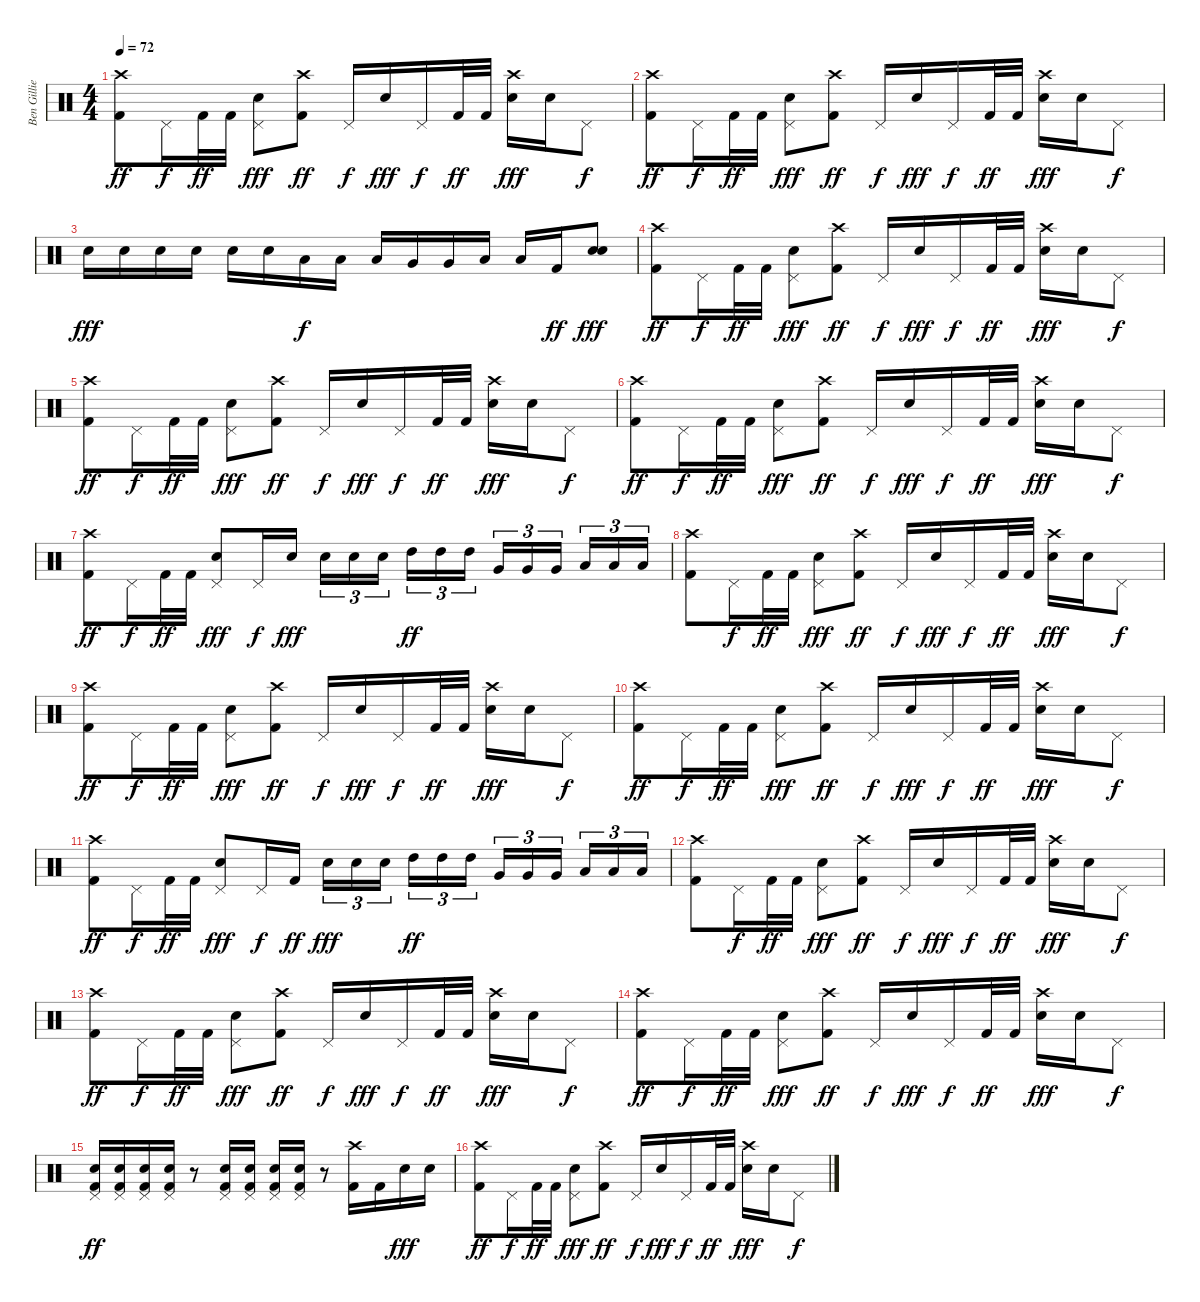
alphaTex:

\track ("Ben Gillies" "Ben Gillie") {instrument percussion}
\staff {score}
\articulation defaults
\ts (4 4)
\tempo 72
\clef neutral
\ks c
("Crash high (hit)" "Kick (hit) 2").8{dy ff} "Pedal Hi-Hat (hit)".16{dy f} "Kick (hit) 2".32{dy ff} "Kick (hit) 2".32 ("Pedal Hi-Hat (hit)" "Electric Snare (hit)").8{dy fff} ("Crash high (hit)" "Kick (hit) 2").8{dy ff} "Pedal Hi-Hat (hit)".16{dy f} "Electric Snare (hit)".16{dy fff} "Pedal Hi-Hat (hit)".16{dy f} "Kick (hit) 2".32{dy ff} "Kick (hit) 2".32 ("Crash high (hit)" "Electric Snare (hit)").16{dy fff} "Electric Snare (hit)".16 "Pedal Hi-Hat (hit)".8{dy f} |
("Crash high (hit)" "Kick (hit) 2").8{dy ff} "Pedal Hi-Hat (hit)".16{dy f} "Kick (hit) 2".32{dy ff} "Kick (hit) 2".32 ("Pedal Hi-Hat (hit)" "Electric Snare (hit)").8{dy fff} ("Crash high (hit)" "Kick (hit) 2").8{dy ff} "Pedal Hi-Hat (hit)".16{dy f} "Electric Snare (hit)".16{dy fff} "Pedal Hi-Hat (hit)".16{dy f} "Kick (hit) 2".32{dy ff} "Kick (hit) 2".32 ("Crash high (hit)" "Electric Snare (hit)").16{dy fff} "Electric Snare (hit)".16 "Pedal Hi-Hat (hit)".8{dy f} |
"Electric Snare (hit)".16{dy fff} "Electric Snare (hit)".16 "Electric Snare (hit)".16 "Electric Snare (hit)".16 "Electric Snare (hit)".16 "Electric Snare (hit)".16 "Low Tom (hit)".16{dy f} "Low Tom (hit)".16 "Low Tom (hit)".16 "Very Low Tom (hit)".16 "Very Low Tom (hit)".16 "Low Tom (hit)".16 "Low Floor Tom (hit)".16 "Kick (hit) 2".16{dy ff} ("Electric Snare (hit)" "Electric Snare (hit)").8{dy fff} |
("Crash high (hit)" "Kick (hit) 2").8{dy ff} "Pedal Hi-Hat (hit)".16{dy f} "Kick (hit) 2".32{dy ff} "Kick (hit) 2".32 ("Pedal Hi-Hat (hit)" "Electric Snare (hit)").8{dy fff} ("Crash high (hit)" "Kick (hit) 2").8{dy ff} "Pedal Hi-Hat (hit)".16{dy f} "Electric Snare (hit)".16{dy fff} "Pedal Hi-Hat (hit)".16{dy f} "Kick (hit) 2".32{dy ff} "Kick (hit) 2".32 ("Crash high (hit)" "Electric Snare (hit)").16{dy fff} "Electric Snare (hit)".16 "Pedal Hi-Hat (hit)".8{dy f} |
("Crash high (hit)" "Kick (hit) 2").8{dy ff} "Pedal Hi-Hat (hit)".16{dy f} "Kick (hit) 2".32{dy ff} "Kick (hit) 2".32 ("Pedal Hi-Hat (hit)" "Electric Snare (hit)").8{dy fff} ("Crash high (hit)" "Kick (hit) 2").8{dy ff} "Pedal Hi-Hat (hit)".16{dy f} "Electric Snare (hit)".16{dy fff} "Pedal Hi-Hat (hit)".16{dy f} "Kick (hit) 2".32{dy ff} "Kick (hit) 2".32 ("Crash high (hit)" "Electric Snare (hit)").16{dy fff} "Electric Snare (hit)".16 "Pedal Hi-Hat (hit)".8{dy f} |
("Crash high (hit)" "Kick (hit) 2").8{dy ff} "Pedal Hi-Hat (hit)".16{dy f} "Kick (hit) 2".32{dy ff} "Kick (hit) 2".32 ("Pedal Hi-Hat (hit)" "Electric Snare (hit)").8{dy fff} ("Crash high (hit)" "Kick (hit) 2").8{dy ff} "Pedal Hi-Hat (hit)".16{dy f} "Electric Snare (hit)".16{dy fff} "Pedal Hi-Hat (hit)".16{dy f} "Kick (hit) 2".32{dy ff} "Kick (hit) 2".32 ("Crash high (hit)" "Electric Snare (hit)").16{dy fff} "Electric Snare (hit)".16 "Pedal Hi-Hat (hit)".8{dy f} |
("Crash high (hit)" "Kick (hit) 2").8{dy ff} "Pedal Hi-Hat (hit)".16{dy f} "Kick (hit) 2".32{dy ff} "Kick (hit) 2".32 ("Pedal Hi-Hat (hit)" "Electric Snare (hit)").8{dy fff} "Pedal Hi-Hat (hit)".16{dy f} "Electric Snare (hit)".16{dy fff} "Electric Snare (hit)".16{tu (3 2)} "Electric Snare (hit)".16{tu (3 2)} "Electric Snare (hit)".16{tu (3 2)} "High Tom (hit)".16{tu (3 2) dy ff} "High Tom (hit)".16{tu (3 2)} "High Tom (hit)".16{tu (3 2)} "Very Low Tom (hit)".16{tu (3 2)} "Very Low Tom (hit)".16{tu (3 2)} "Very Low Tom (hit)".16{tu (3 2)} "Low Floor Tom (hit)".16{tu (3 2)} "Low Floor Tom (hit)".16{tu (3 2)} "Low Floor Tom (hit)".16{tu (3 2)} |
("Crash high (hit)" "Kick (hit) 2").8 "Pedal Hi-Hat (hit)".16{dy f} "Kick (hit) 2".32{dy ff} "Kick (hit) 2".32 ("Pedal Hi-Hat (hit)" "Electric Snare (hit)").8{dy fff} ("Crash high (hit)" "Kick (hit) 2").8{dy ff} "Pedal Hi-Hat (hit)".16{dy f} "Electric Snare (hit)".16{dy fff} "Pedal Hi-Hat (hit)".16{dy f} "Kick (hit) 2".32{dy ff} "Kick (hit) 2".32 ("Crash high (hit)" "Electric Snare (hit)").16{dy fff} "Electric Snare (hit)".16 "Pedal Hi-Hat (hit)".8{dy f} |
("Crash high (hit)" "Kick (hit) 2").8{dy ff} "Pedal Hi-Hat (hit)".16{dy f} "Kick (hit) 2".32{dy ff} "Kick (hit) 2".32 ("Pedal Hi-Hat (hit)" "Electric Snare (hit)").8{dy fff} ("Crash high (hit)" "Kick (hit) 2").8{dy ff} "Pedal Hi-Hat (hit)".16{dy f} "Electric Snare (hit)".16{dy fff} "Pedal Hi-Hat (hit)".16{dy f} "Kick (hit) 2".32{dy ff} "Kick (hit) 2".32 ("Crash high (hit)" "Electric Snare (hit)").16{dy fff} "Electric Snare (hit)".16 "Pedal Hi-Hat (hit)".8{dy f} |
("Crash high (hit)" "Kick (hit) 2").8{dy ff} "Pedal Hi-Hat (hit)".16{dy f} "Kick (hit) 2".32{dy ff} "Kick (hit) 2".32 ("Pedal Hi-Hat (hit)" "Electric Snare (hit)").8{dy fff} ("Crash high (hit)" "Kick (hit) 2").8{dy ff} "Pedal Hi-Hat (hit)".16{dy f} "Electric Snare (hit)".16{dy fff} "Pedal Hi-Hat (hit)".16{dy f} "Kick (hit) 2".32{dy ff} "Kick (hit) 2".32 ("Crash high (hit)" "Electric Snare (hit)").16{dy fff} "Electric Snare (hit)".16 "Pedal Hi-Hat (hit)".8{dy f} |
("Crash high (hit)" "Kick (hit) 2").8{dy ff} "Pedal Hi-Hat (hit)".16{dy f} "Kick (hit) 2".32{dy ff} "Kick (hit) 2".32 ("Pedal Hi-Hat (hit)" "Electric Snare (hit)").8{dy fff} "Pedal Hi-Hat (hit)".16{dy f} "Kick (hit) 2".16{dy ff} "Electric Snare (hit)".16{tu (3 2) dy fff} "Electric Snare (hit)".16{tu (3 2)} "Electric Snare (hit)".16{tu (3 2)} "High Tom (hit)".16{tu (3 2) dy ff} "High Tom (hit)".16{tu (3 2)} "High Tom (hit)".16{tu (3 2)} "Very Low Tom (hit)".16{tu (3 2)} "Very Low Tom (hit)".16{tu (3 2)} "Very Low Tom (hit)".16{tu (3 2)} "Low Floor Tom (hit)".16{tu (3 2)} "Low Floor Tom (hit)".16{tu (3 2)} "Low Floor Tom (hit)".16{tu (3 2)} |
("Crash high (hit)" "Kick (hit) 2").8 "Pedal Hi-Hat (hit)".16{dy f} "Kick (hit) 2".32{dy ff} "Kick (hit) 2".32 ("Pedal Hi-Hat (hit)" "Electric Snare (hit)").8{dy fff} ("Crash high (hit)" "Kick (hit) 2").8{dy ff} "Pedal Hi-Hat (hit)".16{dy f} "Electric Snare (hit)".16{dy fff} "Pedal Hi-Hat (hit)".16{dy f} "Kick (hit) 2".32{dy ff} "Kick (hit) 2".32 ("Crash high (hit)" "Electric Snare (hit)").16{dy fff} "Electric Snare (hit)".16 "Pedal Hi-Hat (hit)".8{dy f} |
("Crash high (hit)" "Kick (hit) 2").8{dy ff} "Pedal Hi-Hat (hit)".16{dy f} "Kick (hit) 2".32{dy ff} "Kick (hit) 2".32 ("Pedal Hi-Hat (hit)" "Electric Snare (hit)").8{dy fff} ("Crash high (hit)" "Kick (hit) 2").8{dy ff} "Pedal Hi-Hat (hit)".16{dy f} "Electric Snare (hit)".16{dy fff} "Pedal Hi-Hat (hit)".16{dy f} "Kick (hit) 2".32{dy ff} "Kick (hit) 2".32 ("Crash high (hit)" "Electric Snare (hit)").16{dy fff} "Electric Snare (hit)".16 "Pedal Hi-Hat (hit)".8{dy f} |
("Crash high (hit)" "Kick (hit) 2").8{dy ff} "Pedal Hi-Hat (hit)".16{dy f} "Kick (hit) 2".32{dy ff} "Kick (hit) 2".32 ("Pedal Hi-Hat (hit)" "Electric Snare (hit)").8{dy fff} ("Crash high (hit)" "Kick (hit) 2").8{dy ff} "Pedal Hi-Hat (hit)".16{dy f} "Electric Snare (hit)".16{dy fff} "Pedal Hi-Hat (hit)".16{dy f} "Kick (hit) 2".32{dy ff} "Kick (hit) 2".32 ("Crash high (hit)" "Electric Snare (hit)").16{dy fff} "Electric Snare (hit)".16 "Pedal Hi-Hat (hit)".8{dy f} |
("Pedal Hi-Hat (hit)" "Electric Snare (hit)" "Kick (hit) 2").16{dy ff} ("Pedal Hi-Hat (hit)" "Electric Snare (hit)" "Kick (hit) 2").16 ("Pedal Hi-Hat (hit)" "Electric Snare (hit)" "Kick (hit) 2").16 ("Pedal Hi-Hat (hit)" "Electric Snare (hit)" "Kick (hit) 2").16 r.8 ("Pedal Hi-Hat (hit)" "Electric Snare (hit)" "Kick (hit) 2").16 ("Pedal Hi-Hat (hit)" "Electric Snare (hit)" "Kick (hit) 2").16 ("Pedal Hi-Hat (hit)" "Electric Snare (hit)" "Kick (hit) 2").16 ("Pedal Hi-Hat (hit)" "Electric Snare (hit)" "Kick (hit) 2").16 r.8 ("Crash high (hit)" "Kick (hit) 2").16 "Kick (hit) 2".16 "Electric Snare (hit)".16{dy fff} "Electric Snare (hit)".16 |
("Crash high (hit)" "Kick (hit) 2").8{dy ff} "Pedal Hi-Hat (hit)".16{dy f} "Kick (hit) 2".32{dy ff} "Kick (hit) 2".32 ("Pedal Hi-Hat (hit)" "Electric Snare (hit)").8{dy fff} ("Crash high (hit)" "Kick (hit) 2").8{dy ff} "Pedal Hi-Hat (hit)".16{dy f} "Electric Snare (hit)".16{dy fff} "Pedal Hi-Hat (hit)".16{dy f} "Kick (hit) 2".32{dy ff} "Kick (hit) 2".32 ("Crash high (hit)" "Electric Snare (hit)").16{dy fff} "Electric Snare (hit)".16 "Pedal Hi-Hat (hit)".8{dy f}
